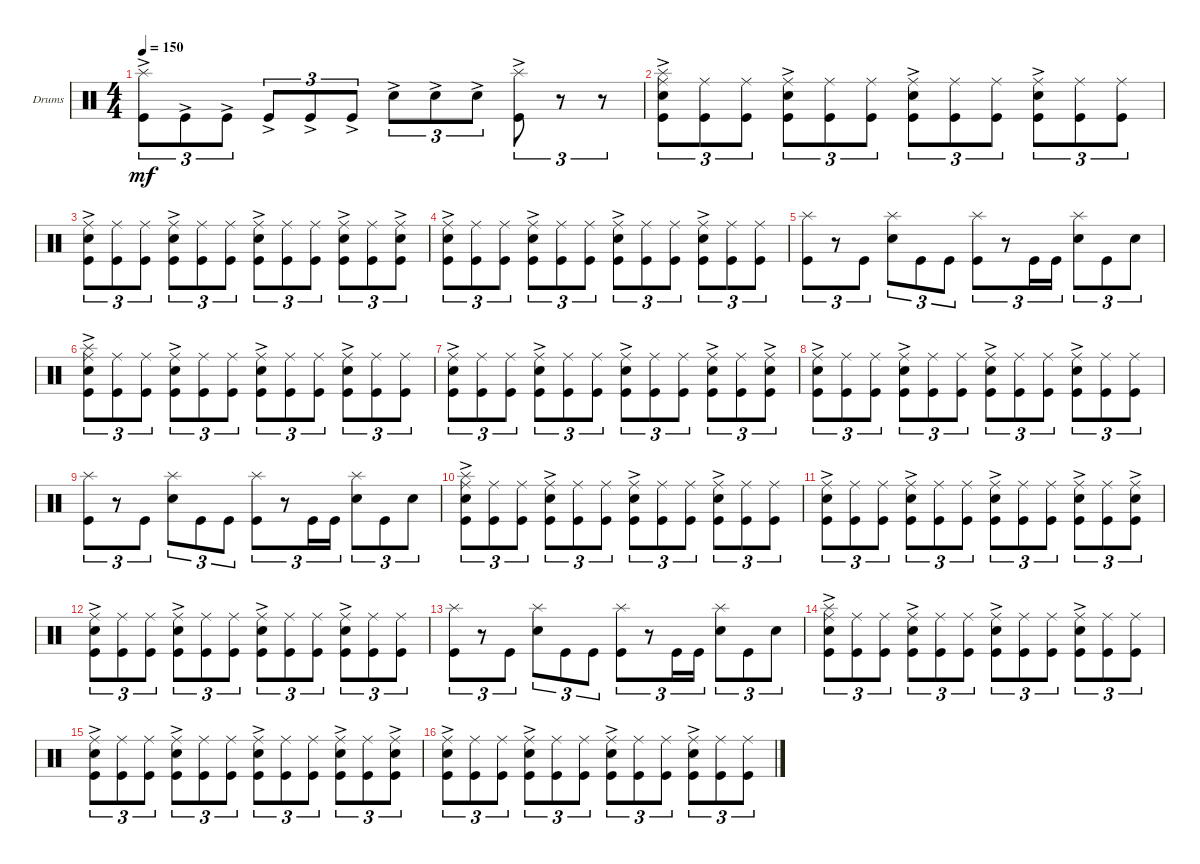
\bracketExtendMode groupsimilarinstruments
\firstSystemTrackNameOrientation horizontal
\otherSystemsTrackNameOrientation horizontal
\track ("Drumkit" "Drums") {instrument percussion}
\staff {score}
\articulation defaults
\ts (4 4)
\tempo 150
\clef neutral
\ks c
("Splash (hit)"{ac} "Kick (hit)"{ac}).8{tu (3 2) dy mf} "Kick (hit)"{ac}.8{tu (3 2)} "Kick (hit)"{ac}.8{tu (3 2)} "Kick (hit)"{ac}.8{tu (3 2)} "Kick (hit)"{ac}.8{tu (3 2)} "Kick (hit)"{ac}.8{tu (3 2)} "Snare (hit) 2"{ac}.8{tu (3 2)} "Snare (hit) 2"{ac}.8{tu (3 2)} "Snare (hit) 2"{ac}.8{tu (3 2)} ("Kick (hit)"{ac} "Splash (hit)"{ac}).8{tu (3 2)} r.8{tu (3 2)} r.8{tu (3 2)} |
("Snare (hit) 2"{ac} "Kick (hit)" "Splash (hit)" "Ride (middle)").8{tu (3 2)} ("Kick (hit)" "Ride (middle)").8{tu (3 2)} ("Kick (hit)" "Ride (middle)").8{tu (3 2)} ("Snare (hit) 2"{ac} "Kick (hit)" "Ride (middle)").8{tu (3 2)} ("Kick (hit)" "Ride (middle)").8{tu (3 2)} ("Kick (hit)" "Ride (middle)").8{tu (3 2)} ("Snare (hit) 2"{ac} "Kick (hit)" "Ride (middle)").8{tu (3 2)} ("Kick (hit)" "Ride (middle)").8{tu (3 2)} ("Kick (hit)" "Ride (middle)").8{tu (3 2)} ("Snare (hit) 2"{ac} "Kick (hit)" "Ride (middle)").8{tu (3 2)} ("Kick (hit)" "Ride (middle)").8{tu (3 2)} ("Kick (hit)" "Ride (middle)").8{tu (3 2)} |
("Snare (hit) 2"{ac} "Kick (hit)" "Ride (middle)").8{tu (3 2)} ("Kick (hit)" "Ride (middle)").8{tu (3 2)} ("Kick (hit)" "Ride (middle)").8{tu (3 2)} ("Snare (hit) 2"{ac} "Kick (hit)" "Ride (middle)").8{tu (3 2)} ("Kick (hit)" "Ride (middle)").8{tu (3 2)} ("Kick (hit)" "Ride (middle)").8{tu (3 2)} ("Snare (hit) 2"{ac} "Kick (hit)" "Ride (middle)").8{tu (3 2)} ("Kick (hit)" "Ride (middle)").8{tu (3 2)} ("Kick (hit)" "Ride (middle)").8{tu (3 2)} ("Snare (hit) 2"{ac} "Kick (hit)" "Ride (middle)").8{tu (3 2)} ("Kick (hit)" "Ride (middle)").8{tu (3 2)} ("Snare (hit) 2"{ac} "Kick (hit)" "Ride (middle)").8{tu (3 2)} |
("Snare (hit) 2"{ac} "Kick (hit)" "Ride (middle)").8{tu (3 2)} ("Kick (hit)" "Ride (middle)").8{tu (3 2)} ("Kick (hit)" "Ride (middle)").8{tu (3 2)} ("Snare (hit) 2"{ac} "Kick (hit)" "Ride (middle)").8{tu (3 2)} ("Kick (hit)" "Ride (middle)").8{tu (3 2)} ("Kick (hit)" "Ride (middle)").8{tu (3 2)} ("Snare (hit) 2"{ac} "Kick (hit)" "Ride (middle)").8{tu (3 2)} ("Kick (hit)" "Ride (middle)").8{tu (3 2)} ("Kick (hit)" "Ride (middle)").8{tu (3 2)} ("Snare (hit) 2"{ac} "Kick (hit)" "Ride (middle)").8{tu (3 2)} ("Kick (hit)" "Ride (middle)").8{tu (3 2)} ("Kick (hit)" "Ride (middle)").8{tu (3 2)} |
("Kick (hit)" "Splash (hit)").8{tu (3 2)} r.8{tu (3 2)} "Kick (hit)".8{tu (3 2)} ("Snare (hit) 2" "Splash (hit)").8{tu (3 2)} "Kick (hit)".8{tu (3 2)} "Kick (hit)".8{tu (3 2)} ("Kick (hit)" "Splash (hit)").8{tu (3 2)} r.8{tu (3 2)} "Kick (hit)".16{tu (3 2)} "Kick (hit)".16{tu (3 2)} ("Snare (hit) 2" "Splash (hit)").8{tu (3 2)} "Kick (hit)".8{tu (3 2)} "Snare (hit) 2".8{tu (3 2)} |
("Snare (hit) 2"{ac} "Kick (hit)" "Splash (hit)" "Ride (middle)").8{tu (3 2)} ("Kick (hit)" "Ride (middle)").8{tu (3 2)} ("Kick (hit)" "Ride (middle)").8{tu (3 2)} ("Snare (hit) 2"{ac} "Kick (hit)" "Ride (middle)").8{tu (3 2)} ("Kick (hit)" "Ride (middle)").8{tu (3 2)} ("Kick (hit)" "Ride (middle)").8{tu (3 2)} ("Snare (hit) 2"{ac} "Kick (hit)" "Ride (middle)").8{tu (3 2)} ("Kick (hit)" "Ride (middle)").8{tu (3 2)} ("Kick (hit)" "Ride (middle)").8{tu (3 2)} ("Snare (hit) 2"{ac} "Kick (hit)" "Ride (middle)").8{tu (3 2)} ("Kick (hit)" "Ride (middle)").8{tu (3 2)} ("Kick (hit)" "Ride (middle)").8{tu (3 2)} |
("Snare (hit) 2"{ac} "Kick (hit)" "Ride (middle)").8{tu (3 2)} ("Kick (hit)" "Ride (middle)").8{tu (3 2)} ("Kick (hit)" "Ride (middle)").8{tu (3 2)} ("Snare (hit) 2"{ac} "Kick (hit)" "Ride (middle)").8{tu (3 2)} ("Kick (hit)" "Ride (middle)").8{tu (3 2)} ("Kick (hit)" "Ride (middle)").8{tu (3 2)} ("Snare (hit) 2"{ac} "Kick (hit)" "Ride (middle)").8{tu (3 2)} ("Kick (hit)" "Ride (middle)").8{tu (3 2)} ("Kick (hit)" "Ride (middle)").8{tu (3 2)} ("Snare (hit) 2"{ac} "Kick (hit)" "Ride (middle)").8{tu (3 2)} ("Kick (hit)" "Ride (middle)").8{tu (3 2)} ("Snare (hit) 2"{ac} "Kick (hit)" "Ride (middle)").8{tu (3 2)} |
("Snare (hit) 2"{ac} "Kick (hit)" "Ride (middle)").8{tu (3 2)} ("Kick (hit)" "Ride (middle)").8{tu (3 2)} ("Kick (hit)" "Ride (middle)").8{tu (3 2)} ("Snare (hit) 2"{ac} "Kick (hit)" "Ride (middle)").8{tu (3 2)} ("Kick (hit)" "Ride (middle)").8{tu (3 2)} ("Kick (hit)" "Ride (middle)").8{tu (3 2)} ("Snare (hit) 2"{ac} "Kick (hit)" "Ride (middle)").8{tu (3 2)} ("Kick (hit)" "Ride (middle)").8{tu (3 2)} ("Kick (hit)" "Ride (middle)").8{tu (3 2)} ("Snare (hit) 2"{ac} "Kick (hit)" "Ride (middle)").8{tu (3 2)} ("Kick (hit)" "Ride (middle)").8{tu (3 2)} ("Kick (hit)" "Ride (middle)").8{tu (3 2)} |
("Kick (hit)" "Splash (hit)").8{tu (3 2)} r.8{tu (3 2)} "Kick (hit)".8{tu (3 2)} ("Snare (hit) 2" "Splash (hit)").8{tu (3 2)} "Kick (hit)".8{tu (3 2)} "Kick (hit)".8{tu (3 2)} ("Kick (hit)" "Splash (hit)").8{tu (3 2)} r.8{tu (3 2)} "Kick (hit)".16{tu (3 2)} "Kick (hit)".16{tu (3 2)} ("Snare (hit) 2" "Splash (hit)").8{tu (3 2)} "Kick (hit)".8{tu (3 2)} "Snare (hit) 2".8{tu (3 2)} |
("Snare (hit) 2"{ac} "Kick (hit)" "Splash (hit)" "Ride (middle)").8{tu (3 2)} ("Kick (hit)" "Ride (middle)").8{tu (3 2)} ("Kick (hit)" "Ride (middle)").8{tu (3 2)} ("Snare (hit) 2"{ac} "Kick (hit)" "Ride (middle)").8{tu (3 2)} ("Kick (hit)" "Ride (middle)").8{tu (3 2)} ("Kick (hit)" "Ride (middle)").8{tu (3 2)} ("Snare (hit) 2"{ac} "Kick (hit)" "Ride (middle)").8{tu (3 2)} ("Kick (hit)" "Ride (middle)").8{tu (3 2)} ("Kick (hit)" "Ride (middle)").8{tu (3 2)} ("Snare (hit) 2"{ac} "Kick (hit)" "Ride (middle)").8{tu (3 2)} ("Kick (hit)" "Ride (middle)").8{tu (3 2)} ("Kick (hit)" "Ride (middle)").8{tu (3 2)} |
("Snare (hit) 2"{ac} "Kick (hit)" "Ride (middle)").8{tu (3 2)} ("Kick (hit)" "Ride (middle)").8{tu (3 2)} ("Kick (hit)" "Ride (middle)").8{tu (3 2)} ("Snare (hit) 2"{ac} "Kick (hit)" "Ride (middle)").8{tu (3 2)} ("Kick (hit)" "Ride (middle)").8{tu (3 2)} ("Kick (hit)" "Ride (middle)").8{tu (3 2)} ("Snare (hit) 2"{ac} "Kick (hit)" "Ride (middle)").8{tu (3 2)} ("Kick (hit)" "Ride (middle)").8{tu (3 2)} ("Kick (hit)" "Ride (middle)").8{tu (3 2)} ("Snare (hit) 2"{ac} "Kick (hit)" "Ride (middle)").8{tu (3 2)} ("Kick (hit)" "Ride (middle)").8{tu (3 2)} ("Snare (hit) 2"{ac} "Kick (hit)" "Ride (middle)").8{tu (3 2)} |
("Snare (hit) 2"{ac} "Kick (hit)" "Ride (middle)").8{tu (3 2)} ("Kick (hit)" "Ride (middle)").8{tu (3 2)} ("Kick (hit)" "Ride (middle)").8{tu (3 2)} ("Snare (hit) 2"{ac} "Kick (hit)" "Ride (middle)").8{tu (3 2)} ("Kick (hit)" "Ride (middle)").8{tu (3 2)} ("Kick (hit)" "Ride (middle)").8{tu (3 2)} ("Snare (hit) 2"{ac} "Kick (hit)" "Ride (middle)").8{tu (3 2)} ("Kick (hit)" "Ride (middle)").8{tu (3 2)} ("Kick (hit)" "Ride (middle)").8{tu (3 2)} ("Snare (hit) 2"{ac} "Kick (hit)" "Ride (middle)").8{tu (3 2)} ("Kick (hit)" "Ride (middle)").8{tu (3 2)} ("Kick (hit)" "Ride (middle)").8{tu (3 2)} |
("Kick (hit)" "Splash (hit)").8{tu (3 2)} r.8{tu (3 2)} "Kick (hit)".8{tu (3 2)} ("Snare (hit) 2" "Splash (hit)").8{tu (3 2)} "Kick (hit)".8{tu (3 2)} "Kick (hit)".8{tu (3 2)} ("Kick (hit)" "Splash (hit)").8{tu (3 2)} r.8{tu (3 2)} "Kick (hit)".16{tu (3 2)} "Kick (hit)".16{tu (3 2)} ("Snare (hit) 2" "Splash (hit)").8{tu (3 2)} "Kick (hit)".8{tu (3 2)} "Snare (hit) 2".8{tu (3 2)} |
("Snare (hit) 2"{ac} "Kick (hit)" "Splash (hit)" "Ride (middle)").8{tu (3 2)} ("Kick (hit)" "Ride (middle)").8{tu (3 2)} ("Kick (hit)" "Ride (middle)").8{tu (3 2)} ("Snare (hit) 2"{ac} "Kick (hit)" "Ride (middle)").8{tu (3 2)} ("Kick (hit)" "Ride (middle)").8{tu (3 2)} ("Kick (hit)" "Ride (middle)").8{tu (3 2)} ("Snare (hit) 2"{ac} "Kick (hit)" "Ride (middle)").8{tu (3 2)} ("Kick (hit)" "Ride (middle)").8{tu (3 2)} ("Kick (hit)" "Ride (middle)").8{tu (3 2)} ("Snare (hit) 2"{ac} "Kick (hit)" "Ride (middle)").8{tu (3 2)} ("Kick (hit)" "Ride (middle)").8{tu (3 2)} ("Kick (hit)" "Ride (middle)").8{tu (3 2)} |
("Snare (hit) 2"{ac} "Kick (hit)" "Ride (middle)").8{tu (3 2)} ("Kick (hit)" "Ride (middle)").8{tu (3 2)} ("Kick (hit)" "Ride (middle)").8{tu (3 2)} ("Snare (hit) 2"{ac} "Kick (hit)" "Ride (middle)").8{tu (3 2)} ("Kick (hit)" "Ride (middle)").8{tu (3 2)} ("Kick (hit)" "Ride (middle)").8{tu (3 2)} ("Snare (hit) 2"{ac} "Kick (hit)" "Ride (middle)").8{tu (3 2)} ("Kick (hit)" "Ride (middle)").8{tu (3 2)} ("Kick (hit)" "Ride (middle)").8{tu (3 2)} ("Snare (hit) 2"{ac} "Kick (hit)" "Ride (middle)").8{tu (3 2)} ("Kick (hit)" "Ride (middle)").8{tu (3 2)} ("Snare (hit) 2"{ac} "Kick (hit)" "Ride (middle)").8{tu (3 2)} |
("Snare (hit) 2"{ac} "Kick (hit)" "Ride (middle)").8{tu (3 2)} ("Kick (hit)" "Ride (middle)").8{tu (3 2)} ("Kick (hit)" "Ride (middle)").8{tu (3 2)} ("Snare (hit) 2"{ac} "Kick (hit)" "Ride (middle)").8{tu (3 2)} ("Kick (hit)" "Ride (middle)").8{tu (3 2)} ("Kick (hit)" "Ride (middle)").8{tu (3 2)} ("Snare (hit) 2"{ac} "Kick (hit)" "Ride (middle)").8{tu (3 2)} ("Kick (hit)" "Ride (middle)").8{tu (3 2)} ("Kick (hit)" "Ride (middle)").8{tu (3 2)} ("Snare (hit) 2"{ac} "Kick (hit)" "Ride (middle)").8{tu (3 2)} ("Kick (hit)" "Ride (middle)").8{tu (3 2)} ("Kick (hit)" "Ride (middle)").8{tu (3 2)}
